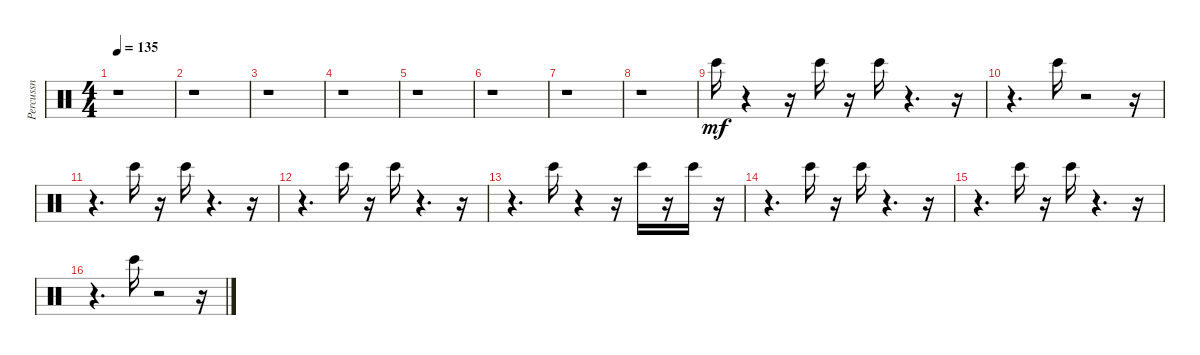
\track ("Percussn" "Percussn") {instrument percussion}
\staff {score}
\articulation defaults
\ts (4 4)
\tempo 135
\clef neutral
\ks c
r.1{dy mf} |
r.1 |
r.1 |
r.1 |
r.1 |
r.1 |
r.1 |
r.1 |
"Bongo High (hit)".16{balance 15} r.4 r.16 "Bongo High (hit)".16{balance 15} r.16 "Bongo High (hit)".16{balance 8} r.4{d} r.16 |
r.4{d} "Bongo High (hit)".16{balance 1} r.2 r.16 |
r.4{d} "Bongo High (hit)".16{balance 10} r.16 "Bongo High (hit)".16{balance 5} r.4{d} r.16 |
r.4{d} "Bongo High (hit)".16{balance 4} r.16 "Bongo High (hit)".16{balance 6} r.4{d} r.16 |
r.4{d} "Bongo High (hit)".16{balance 3} r.4 r.16 "Bongo High (hit)".16{balance 14} r.16 "Bongo High (hit)".16{balance 7} r.16 |
r.4{d} "Bongo High (hit)".16{balance 7} r.16 "Bongo High (hit)".16{balance 15} r.4{d} r.16 |
r.4{d} "Bongo High (hit)".16{balance 8} r.16 "Bongo High (hit)".16{balance 11} r.4{d} r.16 |
r.4{d} "Bongo High (hit)".16{balance 5} r.2 r.16
